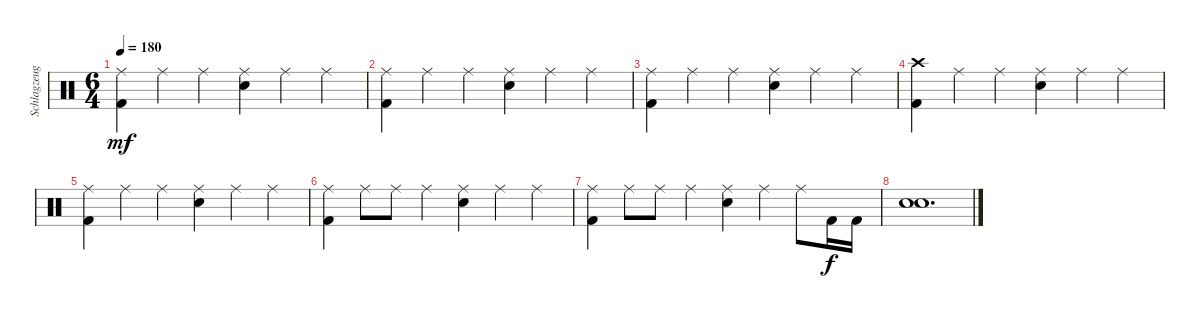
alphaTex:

\track ("Schlagzeug" "Schlagzeug") {instrument percussion}
\staff {score}
\articulation defaults
\ts (6 4)
\tempo 180
\clef neutral
\ks c
("Ride (middle)" "Kick (hit) 2").4{dy mf} "Ride (middle)".4 "Ride (middle)".4 ("Ride (middle)" "Electric Snare (hit)").4 "Ride (middle)".4 "Ride (middle)".4 |
("Ride (middle)" "Kick (hit) 2").4 "Ride (middle)".4 "Ride (middle)".4 ("Ride (middle)" "Electric Snare (hit)").4 "Ride (middle)".4 "Ride (middle)".4 |
("Ride (middle)" "Kick (hit) 2").4 "Ride (middle)".4 "Ride (middle)".4 ("Ride (middle)" "Electric Snare (hit)").4 "Ride (middle)".4 "Ride (middle)".4 |
("Crash high (hit)" "Kick (hit) 2").4 "Ride (middle)".4 "Ride (middle)".4 ("Ride (middle)" "Electric Snare (hit)").4 "Ride (middle)".4 "Ride (middle)".4 |
("Ride (middle)" "Kick (hit) 2").4 "Ride (middle)".4 "Ride (middle)".4 ("Ride (middle)" "Electric Snare (hit)").4 "Ride (middle)".4 "Ride (middle)".4 |
("Ride (middle)" "Kick (hit) 2").4 "Ride (middle)".8 "Ride (middle)".8 "Ride (middle)".4 ("Ride (middle)" "Electric Snare (hit)").4 "Ride (middle)".4 "Ride (middle)".4 |
("Ride (middle)" "Kick (hit) 2").4 "Ride (middle)".8 "Ride (middle)".8 "Ride (middle)".4 ("Ride (middle)" "Electric Snare (hit)").4 "Ride (middle)".4 "Ride (middle)".8 "Kick (hit) 2".16{dy f} "Kick (hit) 2".16 |
("Electric Snare (hit)" "Electric Snare (hit)").1{d bd 240}
